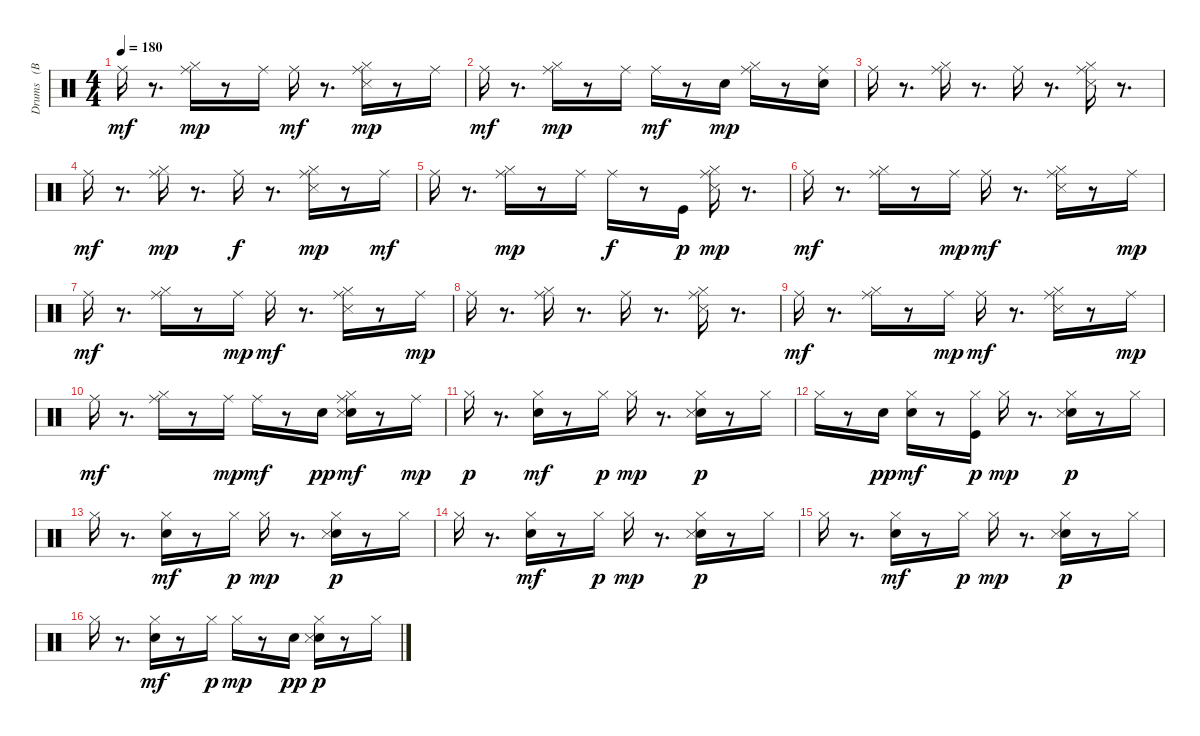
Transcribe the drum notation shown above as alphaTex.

\track ("Drums   (BB)" "Drums   (B") {instrument percussion}
\staff {score}
\articulation defaults
\ts (4 4)
\tempo 180
\clef neutral
\ks c "Ride (middle)".16{dy mf}
r.8{d} ("Hi-Hat (closed)" "Ride (middle)").16{dy mp} r.8 "Ride (middle)".16 "Ride (middle)".16{dy mf} r.8{d} ("Hi-Hat (closed)" "Snare (side stick) 3" "Ride (middle)").16{dy mp} r.8 "Ride (middle)".16 |
"Ride (middle)".16{dy mf} r.8{d} ("Hi-Hat (closed)" "Ride (middle)").16{dy mp} r.8 "Ride (middle)".16 "Ride (middle)".16{dy mf} r.8 "Snare (hit) 2".16{dy mp} ("Hi-Hat (closed)" "Ride (middle)").16 r.8 ("Snare (hit) 2" "Ride (middle)").16 |
"Ride (middle)".16 r.8{d} ("Hi-Hat (closed)" "Ride (middle)").16 r.8{d} "Ride (middle)".16 r.8{d} ("Hi-Hat (closed)" "Snare (side stick) 3" "Ride (middle)").16 r.8{d} |
"Ride (middle)".16{dy mf} r.8{d} ("Hi-Hat (closed)" "Ride (middle)").16{dy mp} r.8{d} "Ride (middle)".16{dy f} r.8{d} ("Hi-Hat (closed)" "Snare (side stick) 3" "Ride (middle)").16{dy mp} r.8 "Ride (middle)".16{dy mf} |
"Ride (middle)".16 r.8{d} ("Hi-Hat (closed)" "Ride (middle)").16{dy mp} r.8 "Ride (middle)".16 "Ride (middle)".16{dy f} r.8 "Kick (hit)".16{dy p} ("Hi-Hat (closed)" "Snare (side stick) 3" "Ride (middle)").16{dy mp} r.8{d} |
"Ride (middle)".16{dy mf} r.8{d} ("Hi-Hat (closed)" "Ride (middle)").16 r.8 "Ride (middle)".16{dy mp} "Ride (middle)".16{dy mf} r.8{d} ("Hi-Hat (closed)" "Snare (side stick) 3" "Ride (middle)").16 r.8 "Ride (middle)".16{dy mp} |
"Ride (middle)".16{dy mf} r.8{d} ("Hi-Hat (closed)" "Ride (middle)").16 r.8 "Ride (middle)".16{dy mp} "Ride (middle)".16{dy mf} r.8{d} ("Hi-Hat (closed)" "Snare (side stick) 3" "Ride (middle)").16 r.8 "Ride (middle)".16{dy mp} |
"Ride (middle)".16 r.8{d} ("Hi-Hat (closed)" "Ride (middle)").16 r.8{d} "Ride (middle)".16 r.8{d} ("Hi-Hat (closed)" "Snare (side stick) 3" "Ride (middle)").16 r.8{d} |
"Ride (middle)".16{dy mf} r.8{d} ("Hi-Hat (closed)" "Ride (middle)").16 r.8 "Ride (middle)".16{dy mp} "Ride (middle)".16{dy mf} r.8{d} ("Hi-Hat (closed)" "Snare (side stick) 3" "Ride (middle)").16 r.8 "Ride (middle)".16{dy mp} |
"Ride (middle)".16{dy mf} r.8{d} ("Hi-Hat (closed)" "Ride (middle)").16 r.8 "Ride (middle)".16{dy mp} "Ride (middle)".16{dy mf} r.8 "Snare (hit) 2".16{dy pp} ("Snare (hit) 2" "Hi-Hat (closed)" "Snare (side stick) 3" "Ride (middle)").16{dy mf} r.8 "Ride (middle)".16{dy mp} |
"Hi-Hat (closed)".16{dy p} r.8{d} ("Snare (hit) 2" "Hi-Hat (closed)").16{dy mf} r.8 "Hi-Hat (closed)".16{dy p} "Hi-Hat (closed)".16{dy mp} r.8{d} ("Snare (hit) 2" "Hi-Hat (closed)" "Snare (side stick) 3").16{dy p} r.8 "Hi-Hat (closed)".16 |
"Hi-Hat (closed)".16 r.8 "Snare (hit) 2".16{dy pp} ("Snare (hit) 2" "Hi-Hat (closed)").16{dy mf} r.8 ("Kick (hit)" "Hi-Hat (closed)").16{dy p} "Hi-Hat (closed)".16{dy mp} r.8{d} ("Snare (hit) 2" "Hi-Hat (closed)" "Snare (side stick) 3").16{dy p} r.8 "Hi-Hat (closed)".16 |
"Hi-Hat (closed)".16 r.8{d} ("Snare (hit) 2" "Hi-Hat (closed)").16{dy mf} r.8 "Hi-Hat (closed)".16{dy p} "Hi-Hat (closed)".16{dy mp} r.8{d} ("Snare (hit) 2" "Hi-Hat (closed)" "Snare (side stick) 3").16{dy p} r.8 "Hi-Hat (closed)".16 |
"Hi-Hat (closed)".16 r.8{d} ("Snare (hit) 2" "Hi-Hat (closed)").16{dy mf} r.8 "Hi-Hat (closed)".16{dy p} "Hi-Hat (closed)".16{dy mp} r.8{d} ("Snare (hit) 2" "Hi-Hat (closed)" "Snare (side stick) 3").16{dy p} r.8 "Hi-Hat (closed)".16 |
"Hi-Hat (closed)".16 r.8{d} ("Snare (hit) 2" "Hi-Hat (closed)").16{dy mf} r.8 "Hi-Hat (closed)".16{dy p} "Hi-Hat (closed)".16{dy mp} r.8{d} ("Snare (hit) 2" "Hi-Hat (closed)" "Snare (side stick) 3").16{dy p} r.8 "Hi-Hat (closed)".16 |
"Hi-Hat (closed)".16 r.8{d} ("Snare (hit) 2" "Hi-Hat (closed)").16{dy mf} r.8 "Hi-Hat (closed)".16{dy p} "Hi-Hat (closed)".16{dy mp} r.8 "Snare (hit) 2".16{dy pp} ("Snare (hit) 2" "Hi-Hat (closed)" "Snare (side stick) 3").16{dy p} r.8 "Hi-Hat (closed)".16
